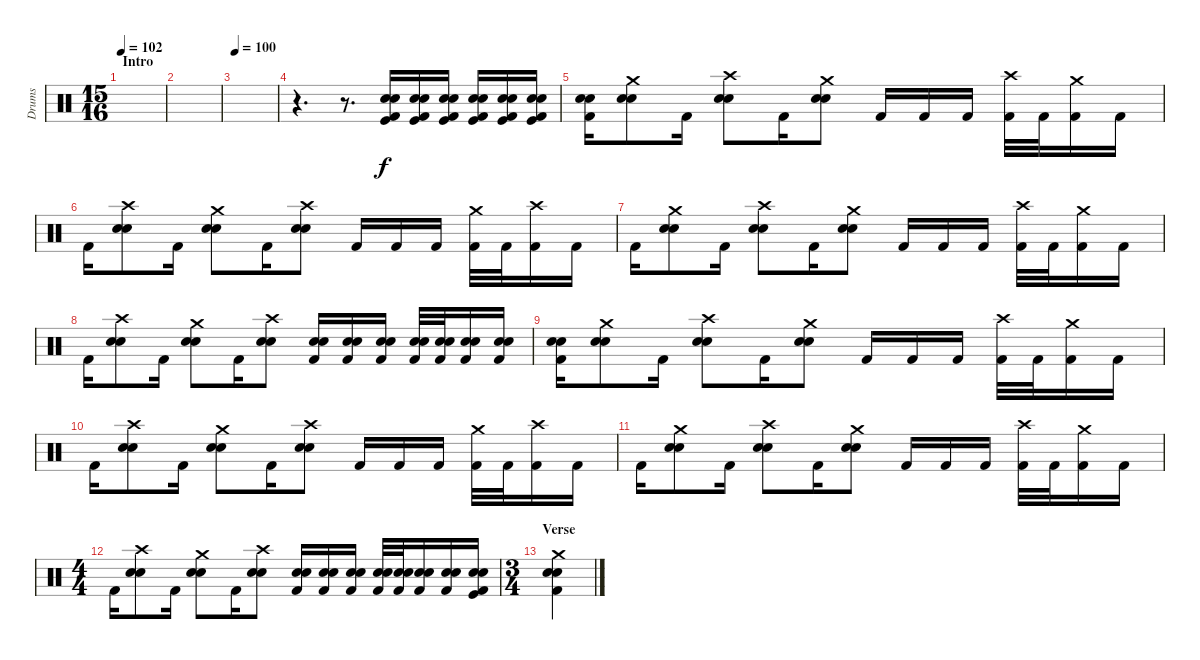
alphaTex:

\track ("Drums" "Drums") {instrument percussion}
\staff {score}
\articulation defaults
\ts (15 16)
\section ("" "Intro")
\tempo 102
\clef neutral
\ks c
|
|
\tempo 100
|
r.4{d} r.8{d} ("Kick (hit) 2" "Snare (hit) 2" "Electric Snare (hit)" "Kick (hit)").16 ("Kick (hit) 2" "Snare (hit) 2" "Electric Snare (hit)" "Kick (hit)").16 ("Kick (hit) 2" "Snare (hit) 2" "Electric Snare (hit)" "Kick (hit)").16 ("Kick (hit) 2" "Snare (hit) 2" "Electric Snare (hit)" "Kick (hit)").16 ("Kick (hit) 2" "Snare (hit) 2" "Electric Snare (hit)" "Kick (hit)").16 ("Kick (hit) 2" "Snare (hit) 2" "Electric Snare (hit)" "Kick (hit)").16 |
("Snare (hit) 2" "Electric Snare (hit)" "Kick (hit) 2").16 ("Crash medium (hit)" "Snare (hit) 2" "Electric Snare (hit)").8 "Kick (hit) 2".16 ("Crash high (hit)" "Snare (hit) 2" "Electric Snare (hit)").8 "Kick (hit) 2".16 ("Crash medium (hit)" "Snare (hit) 2" "Electric Snare (hit)").8 "Kick (hit) 2".16 "Kick (hit) 2".16 "Kick (hit) 2".16 ("Crash high (hit)" "Kick (hit) 2").32 "Kick (hit) 2".32 ("Crash medium (hit)" "Kick (hit) 2").16 "Kick (hit) 2".16 |
"Kick (hit) 2".16 ("Crash high (hit)" "Snare (hit) 2" "Electric Snare (hit)").8 "Kick (hit) 2".16 ("Crash medium (hit)" "Snare (hit) 2" "Electric Snare (hit)").8 "Kick (hit) 2".16 ("Crash high (hit)" "Snare (hit) 2" "Electric Snare (hit)").8 "Kick (hit) 2".16 "Kick (hit) 2".16 "Kick (hit) 2".16 ("Crash medium (hit)" "Kick (hit) 2").32 "Kick (hit) 2".32 ("Crash high (hit)" "Kick (hit) 2").16 "Kick (hit) 2".16 |
"Kick (hit) 2".16 ("Crash medium (hit)" "Snare (hit) 2" "Electric Snare (hit)").8 "Kick (hit) 2".16 ("Crash high (hit)" "Snare (hit) 2" "Electric Snare (hit)").8 "Kick (hit) 2".16 ("Crash medium (hit)" "Snare (hit) 2" "Electric Snare (hit)").8 "Kick (hit) 2".16 "Kick (hit) 2".16 "Kick (hit) 2".16 ("Crash high (hit)" "Kick (hit) 2").32 "Kick (hit) 2".32 ("Crash medium (hit)" "Kick (hit) 2").16 "Kick (hit) 2".16 |
"Kick (hit) 2".16 ("Crash high (hit)" "Snare (hit) 2" "Electric Snare (hit)").8 "Kick (hit) 2".16 ("Crash medium (hit)" "Snare (hit) 2" "Electric Snare (hit)").8 "Kick (hit) 2".16 ("Crash high (hit)" "Snare (hit) 2" "Electric Snare (hit)").8 ("Snare (hit) 2" "Electric Snare (hit)" "Kick (hit) 2").16 ("Snare (hit) 2" "Electric Snare (hit)" "Kick (hit) 2").16 ("Snare (hit) 2" "Electric Snare (hit)" "Kick (hit) 2").16 ("Snare (hit) 2" "Electric Snare (hit)" "Kick (hit) 2").32 ("Snare (hit) 2" "Electric Snare (hit)" "Kick (hit) 2").32 ("Snare (hit) 2" "Electric Snare (hit)" "Kick (hit) 2").16 ("Snare (hit) 2" "Electric Snare (hit)" "Kick (hit) 2").16 |
("Snare (hit) 2" "Electric Snare (hit)" "Kick (hit) 2").16 ("Crash medium (hit)" "Snare (hit) 2" "Electric Snare (hit)").8 "Kick (hit) 2".16 ("Crash high (hit)" "Snare (hit) 2" "Electric Snare (hit)").8 "Kick (hit) 2".16 ("Crash medium (hit)" "Snare (hit) 2" "Electric Snare (hit)").8 "Kick (hit) 2".16 "Kick (hit) 2".16 "Kick (hit) 2".16 ("Crash high (hit)" "Kick (hit) 2").32 "Kick (hit) 2".32 ("Crash medium (hit)" "Kick (hit) 2").16 "Kick (hit) 2".16 |
"Kick (hit) 2".16 ("Crash high (hit)" "Snare (hit) 2" "Electric Snare (hit)").8 "Kick (hit) 2".16 ("Crash medium (hit)" "Snare (hit) 2" "Electric Snare (hit)").8 "Kick (hit) 2".16 ("Crash high (hit)" "Snare (hit) 2" "Electric Snare (hit)").8 "Kick (hit) 2".16 "Kick (hit) 2".16 "Kick (hit) 2".16 ("Crash medium (hit)" "Kick (hit) 2").32 "Kick (hit) 2".32 ("Crash high (hit)" "Kick (hit) 2").16 "Kick (hit) 2".16 |
"Kick (hit) 2".16 ("Crash medium (hit)" "Snare (hit) 2" "Electric Snare (hit)").8 "Kick (hit) 2".16 ("Crash high (hit)" "Snare (hit) 2" "Electric Snare (hit)").8 "Kick (hit) 2".16 ("Crash medium (hit)" "Snare (hit) 2" "Electric Snare (hit)").8 "Kick (hit) 2".16 "Kick (hit) 2".16 "Kick (hit) 2".16 ("Crash high (hit)" "Kick (hit) 2").32 "Kick (hit) 2".32 ("Crash medium (hit)" "Kick (hit) 2").16 "Kick (hit) 2".16 |
\ts (4 4)
"Kick (hit) 2".16 ("Crash high (hit)" "Snare (hit) 2" "Electric Snare (hit)").8 "Kick (hit) 2".16 ("Crash medium (hit)" "Snare (hit) 2" "Electric Snare (hit)").8 "Kick (hit) 2".16 ("Crash high (hit)" "Snare (hit) 2" "Electric Snare (hit)").8 ("Snare (hit) 2" "Electric Snare (hit)" "Kick (hit) 2").16 ("Snare (hit) 2" "Electric Snare (hit)" "Kick (hit) 2").16 ("Snare (hit) 2" "Electric Snare (hit)" "Kick (hit) 2").16 ("Snare (hit) 2" "Electric Snare (hit)" "Kick (hit) 2").32 ("Snare (hit) 2" "Electric Snare (hit)" "Kick (hit) 2").32 ("Snare (hit) 2" "Electric Snare (hit)" "Kick (hit) 2").16 ("Snare (hit) 2" "Electric Snare (hit)" "Kick (hit) 2").16 ("Snare (hit) 2" "Electric Snare (hit)" "Kick (hit)" "Kick (hit) 2").16 |
\ts (3 4)
\section ("" "Verse")
("Crash medium (hit)" "Snare (hit) 2" "Electric Snare (hit)" "Kick (hit) 2").4
